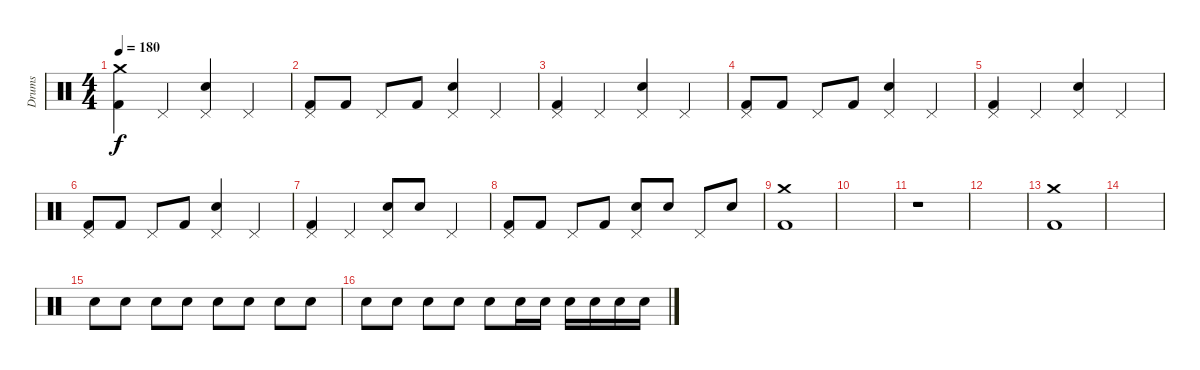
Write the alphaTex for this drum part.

\track ("Drums" "Drums") {instrument percussion}
\staff {score}
\articulation defaults
\ts (4 4)
\tempo 180
\clef neutral
\ks c
("Crash medium (hit)" "Kick (hit) 2").4{dy f} "Pedal Hi-Hat (hit)".4 ("Pedal Hi-Hat (hit)" "Electric Snare (hit)").4 "Pedal Hi-Hat (hit)".4 |
("Pedal Hi-Hat (hit)" "Kick (hit) 2").8 "Kick (hit) 2".8 "Pedal Hi-Hat (hit)".8 "Kick (hit) 2".8 ("Pedal Hi-Hat (hit)" "Electric Snare (hit)").4 "Pedal Hi-Hat (hit)".4 |
("Pedal Hi-Hat (hit)" "Kick (hit) 2").4 "Pedal Hi-Hat (hit)".4 ("Pedal Hi-Hat (hit)" "Electric Snare (hit)").4 "Pedal Hi-Hat (hit)".4 |
("Pedal Hi-Hat (hit)" "Kick (hit) 2").8 "Kick (hit) 2".8 "Pedal Hi-Hat (hit)".8 "Kick (hit) 2".8 ("Pedal Hi-Hat (hit)" "Electric Snare (hit)").4 "Pedal Hi-Hat (hit)".4 |
("Pedal Hi-Hat (hit)" "Kick (hit) 2").4 "Pedal Hi-Hat (hit)".4 ("Pedal Hi-Hat (hit)" "Electric Snare (hit)").4 "Pedal Hi-Hat (hit)".4 |
("Pedal Hi-Hat (hit)" "Kick (hit) 2").8 "Kick (hit) 2".8 "Pedal Hi-Hat (hit)".8 "Kick (hit) 2".8 ("Pedal Hi-Hat (hit)" "Electric Snare (hit)").4 "Pedal Hi-Hat (hit)".4 |
("Pedal Hi-Hat (hit)" "Kick (hit) 2").4 "Pedal Hi-Hat (hit)".4 ("Pedal Hi-Hat (hit)" "Electric Snare (hit)").8 "Electric Snare (hit)".8 "Pedal Hi-Hat (hit)".4 |
("Pedal Hi-Hat (hit)" "Kick (hit) 2").8 "Kick (hit) 2".8 "Pedal Hi-Hat (hit)".8 "Kick (hit) 2".8 ("Pedal Hi-Hat (hit)" "Electric Snare (hit)").8 "Electric Snare (hit)".8 "Pedal Hi-Hat (hit)".8 "Electric Snare (hit)".8 |
("Crash medium (hit)" "Kick (hit) 2").1 |
|
r.1 |
|
("Crash medium (hit)" "Kick (hit) 2").1 |
|
"Electric Snare (hit)".8 "Electric Snare (hit)".8 "Electric Snare (hit)".8 "Electric Snare (hit)".8 "Electric Snare (hit)".8 "Electric Snare (hit)".8 "Electric Snare (hit)".8 "Electric Snare (hit)".8 |
"Electric Snare (hit)".8 "Electric Snare (hit)".8 "Electric Snare (hit)".8 "Electric Snare (hit)".8 "Electric Snare (hit)".8 "Electric Snare (hit)".16 "Electric Snare (hit)".16 "Electric Snare (hit)".16 "Electric Snare (hit)".16 "Electric Snare (hit)".16 "Electric Snare (hit)".16
